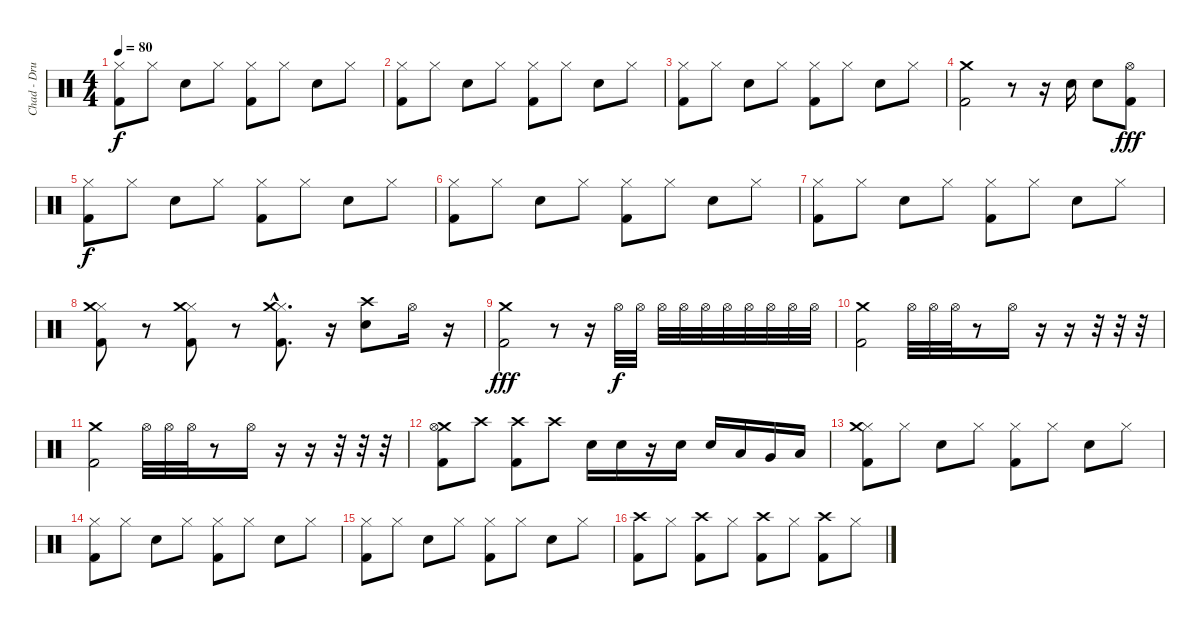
\track ("Chad - Drums" "Chad - Dru") {instrument percussion}
\staff {score}
\articulation defaults
\ts (4 4)
\tempo 80
\clef neutral
\ks c
("Hi-Hat (closed)" "Kick (hit) 2").8{dy f} "Hi-Hat (closed)".8 "Electric Snare (hit)".8 "Hi-Hat (closed)".8 ("Hi-Hat (closed)" "Kick (hit) 2").8 "Hi-Hat (closed)".8 "Electric Snare (hit)".8 "Hi-Hat (closed)".8 |
("Hi-Hat (closed)" "Kick (hit) 2").8 "Hi-Hat (closed)".8 "Electric Snare (hit)".8 "Hi-Hat (closed)".8 ("Hi-Hat (closed)" "Kick (hit) 2").8 "Hi-Hat (closed)".8 "Electric Snare (hit)".8 "Hi-Hat (closed)".8 |
("Hi-Hat (closed)" "Kick (hit) 2").8 "Hi-Hat (closed)".8 "Electric Snare (hit)".8 "Hi-Hat (closed)".8 ("Hi-Hat (closed)" "Kick (hit) 2").8 "Hi-Hat (closed)".8 "Electric Snare (hit)".8 "Hi-Hat (closed)".8 |
("Crash medium (hit)" "Kick (hit) 2").2 r.8 r.16 "Electric Snare (hit)".16 "Electric Snare (hit)".8 ("Hi-Hat (open)" "Kick (hit) 2").8{dy fff} |
("Hi-Hat (closed)" "Kick (hit) 2").8{dy f} "Hi-Hat (closed)".8 "Electric Snare (hit)".8 "Hi-Hat (closed)".8 ("Hi-Hat (closed)" "Kick (hit) 2").8 "Hi-Hat (closed)".8 "Electric Snare (hit)".8 "Hi-Hat (closed)".8 |
("Hi-Hat (closed)" "Kick (hit) 2").8 "Hi-Hat (closed)".8 "Electric Snare (hit)".8 "Hi-Hat (closed)".8 ("Hi-Hat (closed)" "Kick (hit) 2").8 "Hi-Hat (closed)".8 "Electric Snare (hit)".8 "Hi-Hat (closed)".8 |
("Hi-Hat (closed)" "Kick (hit) 2").8 "Hi-Hat (closed)".8 "Electric Snare (hit)".8 "Hi-Hat (closed)".8 ("Hi-Hat (closed)" "Kick (hit) 2").8 "Hi-Hat (closed)".8 "Electric Snare (hit)".8 "Hi-Hat (closed)".8 |
("Hi-Hat (closed)" "Kick (hit) 2" "Crash medium (hit)").8 r.8 ("Hi-Hat (closed)" "Kick (hit) 2" "Crash medium (hit)").8 r.8 ("Hi-Hat (closed)"{hac} "Kick (hit) 2"{hac} "Crash medium (hit)"{hac}).8{d} r.16 ("Electric Snare (hit)" "Crash high (hit)").8 "Hi-Hat (open)".16 r.16 |
("Crash medium (hit)" "Kick (hit) 2").2{dy fff} r.8 r.16 "Hi-Hat (open)".32{dy f} "Hi-Hat (open)".32 "Hi-Hat (open)".32 "Hi-Hat (open)".32 "Hi-Hat (open)".32 "Hi-Hat (open)".32 "Hi-Hat (open)".32 "Hi-Hat (open)".32 "Hi-Hat (open)".32 "Hi-Hat (open)".32 |
("Crash medium (hit)" "Kick (hit) 2").2 "Hi-Hat (open)".32 "Hi-Hat (open)".32 "Hi-Hat (open)".32 r.8 "Hi-Hat (open)".16 r.16 r.16 r.32 r.32 r.32 |
("Crash medium (hit)" "Kick (hit) 2").2 "Hi-Hat (open)".32 "Hi-Hat (open)".32 "Hi-Hat (open)".32 r.8 "Hi-Hat (open)".16 r.16 r.16 r.32 r.32 r.32 |
("Crash medium (hit)" "Kick (hit) 2" "Hi-Hat (open)").8 "Crash high (hit)".8 ("Crash high (hit)" "Kick (hit) 2").8 "Crash high (hit)".8 "Electric Snare (hit)".16 "Electric Snare (hit)".16 r.16 "Electric Snare (hit)".16 "Electric Snare (hit)".16 "Low Tom (hit)".16 "Very Low Tom (hit)".16 "Low Floor Tom (hit)".16 |
("Hi-Hat (closed)" "Kick (hit) 2" "Crash medium (hit)").8 "Hi-Hat (closed)".8 "Electric Snare (hit)".8 "Hi-Hat (closed)".8 ("Hi-Hat (closed)" "Kick (hit) 2").8 "Hi-Hat (closed)".8 "Electric Snare (hit)".8 "Hi-Hat (closed)".8 |
("Hi-Hat (closed)" "Kick (hit) 2").8 "Hi-Hat (closed)".8 "Electric Snare (hit)".8 "Hi-Hat (closed)".8 ("Hi-Hat (closed)" "Kick (hit) 2").8 "Hi-Hat (closed)".8 "Electric Snare (hit)".8 "Hi-Hat (closed)".8 |
("Hi-Hat (closed)" "Kick (hit) 2").8 "Hi-Hat (closed)".8 "Electric Snare (hit)".8 "Hi-Hat (closed)".8 ("Hi-Hat (closed)" "Kick (hit) 2").8 "Hi-Hat (closed)".8 "Electric Snare (hit)".8 "Hi-Hat (closed)".8 |
("Crash high (hit)" "Kick (hit) 2").8 "Hi-Hat (closed)".8 ("Crash high (hit)" "Kick (hit) 2").8 "Hi-Hat (closed)".8 ("Crash high (hit)" "Kick (hit) 2").8 "Hi-Hat (closed)".8 ("Crash high (hit)" "Kick (hit) 2").8 "Hi-Hat (closed)".8
